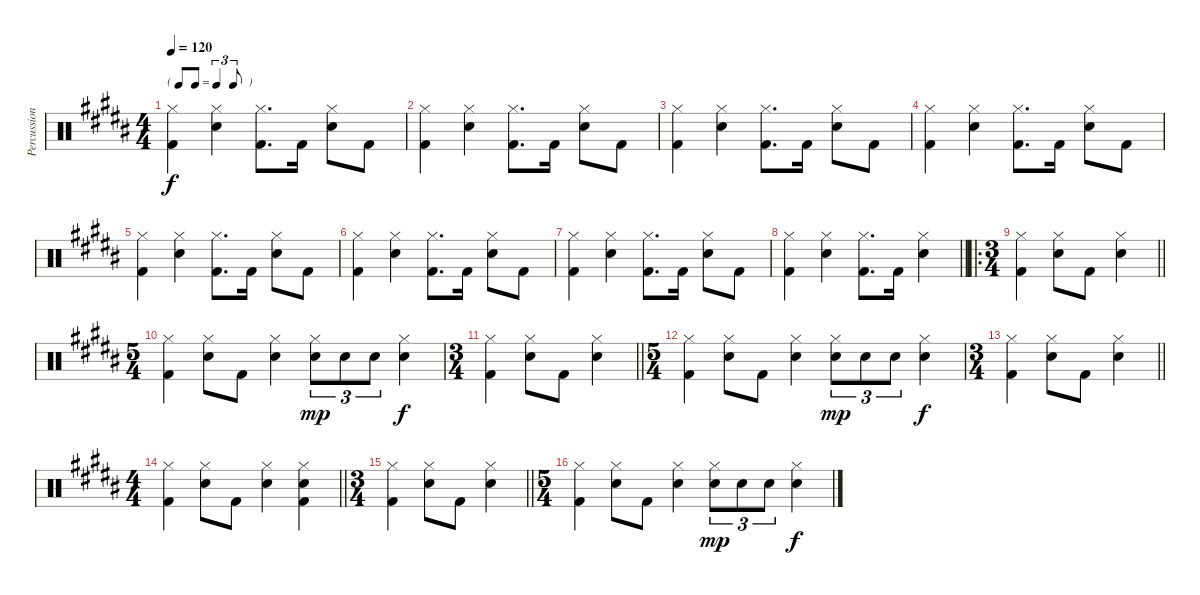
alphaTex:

\track ("Percussion" "Percussion") {instrument percussion}
\staff {score}
\articulation defaults
\ts (4 4)
\tf triplet8th
\tempo 120
\clef neutral
\ks b
("Hi-Hat (closed)" "Kick (hit) 2").4{dy f} ("Hi-Hat (closed)" "Snare (hit) 2").4 ("Hi-Hat (closed)" "Kick (hit) 2").8{d} "Kick (hit) 2".16 ("Hi-Hat (closed)" "Snare (hit) 2").8 "Kick (hit) 2".8 |
("Hi-Hat (closed)" "Kick (hit) 2").4 ("Hi-Hat (closed)" "Snare (hit) 2").4 ("Hi-Hat (closed)" "Kick (hit) 2").8{d} "Kick (hit) 2".16 ("Hi-Hat (closed)" "Snare (hit) 2").8 "Kick (hit) 2".8 |
("Hi-Hat (closed)" "Kick (hit) 2").4 ("Hi-Hat (closed)" "Snare (hit) 2").4 ("Hi-Hat (closed)" "Kick (hit) 2").8{d} "Kick (hit) 2".16 ("Hi-Hat (closed)" "Snare (hit) 2").8 "Kick (hit) 2".8 |
("Hi-Hat (closed)" "Kick (hit) 2").4 ("Hi-Hat (closed)" "Snare (hit) 2").4 ("Hi-Hat (closed)" "Kick (hit) 2").8{d} "Kick (hit) 2".16 ("Hi-Hat (closed)" "Snare (hit) 2").8 "Kick (hit) 2".8 |
("Hi-Hat (closed)" "Kick (hit) 2").4 ("Hi-Hat (closed)" "Snare (hit) 2").4 ("Hi-Hat (closed)" "Kick (hit) 2").8{d} "Kick (hit) 2".16 ("Hi-Hat (closed)" "Snare (hit) 2").8 "Kick (hit) 2".8 |
("Hi-Hat (closed)" "Kick (hit) 2").4 ("Hi-Hat (closed)" "Snare (hit) 2").4 ("Hi-Hat (closed)" "Kick (hit) 2").8{d} "Kick (hit) 2".16 ("Hi-Hat (closed)" "Snare (hit) 2").8 "Kick (hit) 2".8 |
("Hi-Hat (closed)" "Kick (hit) 2").4 ("Hi-Hat (closed)" "Snare (hit) 2").4 ("Hi-Hat (closed)" "Kick (hit) 2").8{d} "Kick (hit) 2".16 ("Hi-Hat (closed)" "Snare (hit) 2").8 "Kick (hit) 2".8 |
\barLineRight lightlight
("Hi-Hat (closed)" "Kick (hit) 2").4 ("Hi-Hat (closed)" "Snare (hit) 2").4 ("Hi-Hat (closed)" "Kick (hit) 2").8{d} "Kick (hit) 2".16 ("Hi-Hat (closed)" "Snare (hit) 2").4 |
\ro
\ts (3 4)
\barLineRight lightlight
("Hi-Hat (closed)" "Kick (hit) 2").4 ("Hi-Hat (closed)" "Snare (hit) 2").8 "Kick (hit) 2".8 ("Hi-Hat (closed)" "Snare (hit) 2").4 |
\ts (5 4)
("Hi-Hat (closed)" "Kick (hit) 2").4 ("Hi-Hat (closed)" "Snare (hit) 2").8 "Kick (hit) 2".8 ("Hi-Hat (closed)" "Snare (hit) 2").4 ("Hi-Hat (closed)" "Snare (hit) 2").8{tu (3 2) dy mp} "Snare (hit) 2".8{tu (3 2)} "Snare (hit) 2".8{tu (3 2)} ("Hi-Hat (closed)" "Snare (hit) 2").4{dy f} |
\ts (3 4)
\barLineRight lightlight
("Hi-Hat (closed)" "Kick (hit) 2").4 ("Hi-Hat (closed)" "Snare (hit) 2").8 "Kick (hit) 2".8 ("Hi-Hat (closed)" "Snare (hit) 2").4 |
\ts (5 4)
("Hi-Hat (closed)" "Kick (hit) 2").4 ("Hi-Hat (closed)" "Snare (hit) 2").8 "Kick (hit) 2".8 ("Hi-Hat (closed)" "Snare (hit) 2").4 ("Hi-Hat (closed)" "Snare (hit) 2").8{tu (3 2) dy mp} "Snare (hit) 2".8{tu (3 2)} "Snare (hit) 2".8{tu (3 2)} ("Hi-Hat (closed)" "Snare (hit) 2").4{dy f} |
\ts (3 4)
\barLineRight lightlight
("Hi-Hat (closed)" "Kick (hit) 2").4 ("Hi-Hat (closed)" "Snare (hit) 2").8 "Kick (hit) 2".8 ("Hi-Hat (closed)" "Snare (hit) 2").4 |
\ts (4 4)
\barLineRight lightlight
("Hi-Hat (closed)" "Kick (hit) 2").4 ("Hi-Hat (closed)" "Snare (hit) 2").8 "Kick (hit) 2".8 ("Hi-Hat (closed)" "Snare (hit) 2").4 ("Hi-Hat (closed)" "Snare (hit) 2" "Kick (hit) 2").4 |
\ts (3 4)
\barLineRight lightlight
("Hi-Hat (closed)" "Kick (hit) 2").4 ("Hi-Hat (closed)" "Snare (hit) 2").8 "Kick (hit) 2".8 ("Hi-Hat (closed)" "Snare (hit) 2").4 |
\ts (5 4)
("Hi-Hat (closed)" "Kick (hit) 2").4 ("Hi-Hat (closed)" "Snare (hit) 2").8 "Kick (hit) 2".8 ("Hi-Hat (closed)" "Snare (hit) 2").4 ("Hi-Hat (closed)" "Snare (hit) 2").8{tu (3 2) dy mp} "Snare (hit) 2".8{tu (3 2)} "Snare (hit) 2".8{tu (3 2)} ("Hi-Hat (closed)" "Snare (hit) 2").4{dy f}
